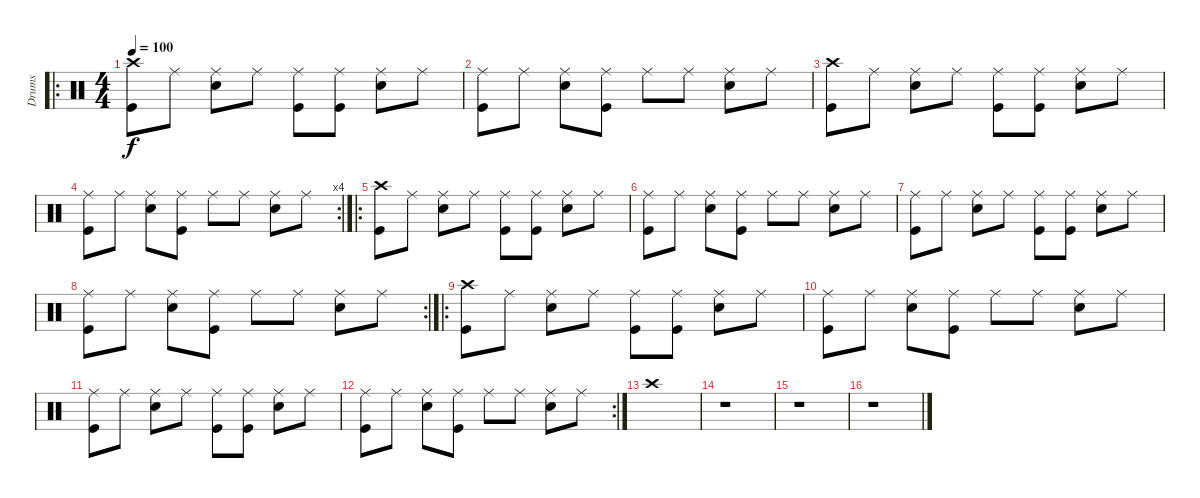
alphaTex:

\track ("Drums" "Drums") {instrument percussion}
\staff {score}
\articulation defaults
\ro
\ts (4 4)
\tempo 100
\clef neutral
\ks c
("Crash high (hit)" "Kick (hit)").8{dy f} "Ride (middle)".8 ("Ride (middle)" "Snare (hit) 2").8 "Ride (middle)".8 ("Ride (middle)" "Kick (hit)").8 ("Ride (middle)" "Kick (hit)").8 ("Ride (middle)" "Snare (hit) 2").8 "Ride (middle)".8 |
("Ride (middle)" "Kick (hit)").8 "Ride (middle)".8 ("Ride (middle)" "Snare (hit) 2").8 ("Ride (middle)" "Kick (hit)").8 "Ride (middle)".8 "Ride (middle)".8 ("Ride (middle)" "Snare (hit) 2").8 "Ride (middle)".8 |
("Crash high (hit)" "Kick (hit)").8 "Ride (middle)".8 ("Ride (middle)" "Snare (hit) 2").8 "Ride (middle)".8 ("Ride (middle)" "Kick (hit)").8 ("Ride (middle)" "Kick (hit)").8 ("Ride (middle)" "Snare (hit) 2").8 "Ride (middle)".8 |
\rc 4
("Ride (middle)" "Kick (hit)").8 "Ride (middle)".8 ("Ride (middle)" "Snare (hit) 2").8 ("Ride (middle)" "Kick (hit)").8 "Ride (middle)".8 "Ride (middle)".8 ("Ride (middle)" "Snare (hit) 2").8 "Ride (middle)".8 |
\ro
("Crash high (hit)" "Kick (hit)").8 "Ride (middle)".8 ("Ride (middle)" "Snare (hit) 2").8 "Ride (middle)".8 ("Ride (middle)" "Kick (hit)").8 ("Ride (middle)" "Kick (hit)").8 ("Ride (middle)" "Snare (hit) 2").8 "Ride (middle)".8 |
("Ride (middle)" "Kick (hit)").8 "Ride (middle)".8 ("Ride (middle)" "Snare (hit) 2").8 ("Ride (middle)" "Kick (hit)").8 "Ride (middle)".8 "Ride (middle)".8 ("Ride (middle)" "Snare (hit) 2").8 "Ride (middle)".8 |
("Ride (middle)" "Kick (hit)").8 "Ride (middle)".8 ("Ride (middle)" "Snare (hit) 2").8 "Ride (middle)".8 ("Ride (middle)" "Kick (hit)").8 ("Ride (middle)" "Kick (hit)").8 ("Ride (middle)" "Snare (hit) 2").8 "Ride (middle)".8 |
\rc 2
("Ride (middle)" "Kick (hit)").8 "Ride (middle)".8 ("Ride (middle)" "Snare (hit) 2").8 ("Ride (middle)" "Kick (hit)").8 "Ride (middle)".8 "Ride (middle)".8 ("Ride (middle)" "Snare (hit) 2").8 "Ride (middle)".8 |
\ro
("Crash high (hit)" "Kick (hit)").8 "Ride (middle)".8 ("Ride (middle)" "Snare (hit) 2").8 "Ride (middle)".8 ("Ride (middle)" "Kick (hit)").8 ("Ride (middle)" "Kick (hit)").8 ("Ride (middle)" "Snare (hit) 2").8 "Ride (middle)".8 |
("Ride (middle)" "Kick (hit)").8 "Ride (middle)".8 ("Ride (middle)" "Snare (hit) 2").8 ("Ride (middle)" "Kick (hit)").8 "Ride (middle)".8 "Ride (middle)".8 ("Ride (middle)" "Snare (hit) 2").8 "Ride (middle)".8 |
("Ride (middle)" "Kick (hit)").8 "Ride (middle)".8 ("Ride (middle)" "Snare (hit) 2").8 "Ride (middle)".8 ("Ride (middle)" "Kick (hit)").8 ("Ride (middle)" "Kick (hit)").8 ("Ride (middle)" "Snare (hit) 2").8 "Ride (middle)".8 |
\rc 2
("Ride (middle)" "Kick (hit)").8 "Ride (middle)".8 ("Ride (middle)" "Snare (hit) 2").8 ("Ride (middle)" "Kick (hit)").8 "Ride (middle)".8 "Ride (middle)".8 ("Ride (middle)" "Snare (hit) 2").8 "Ride (middle)".8 |
"Crash high (hit)".1 |
r.1 |
r.1 |
r.1
